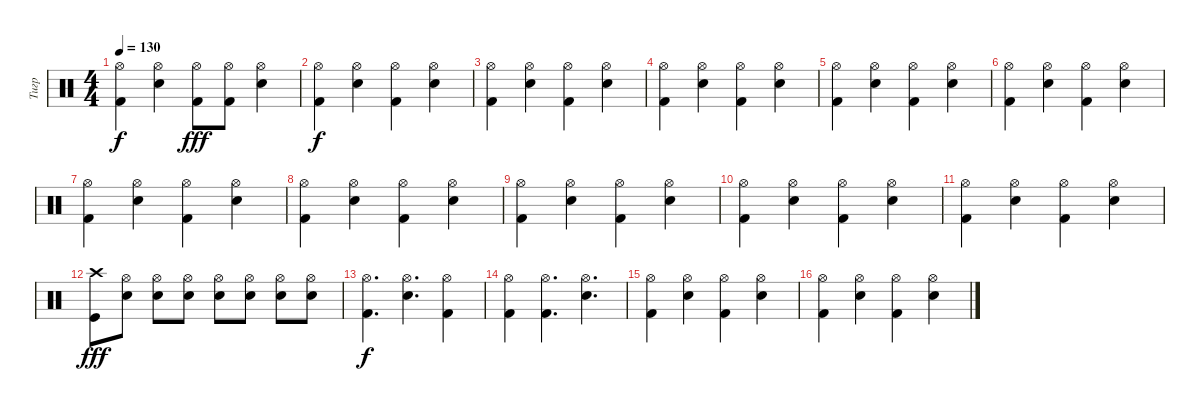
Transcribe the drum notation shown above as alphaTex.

\track ("Тигр" "Тигр") {instrument percussion}
\staff {score}
\articulation defaults
\ts (4 4)
\tempo 130
\clef neutral
\ks c
("Hi-Hat (open)" "Kick (hit) 2").4{dy f} ("Hi-Hat (open)" "Snare (hit) 2").4 ("Hi-Hat (open)" "Kick (hit) 2").8{dy fff} ("Hi-Hat (open)" "Kick (hit) 2").8 ("Hi-Hat (open)" "Snare (hit) 2").4 |
("Hi-Hat (open)" "Kick (hit) 2").4{dy f} ("Hi-Hat (open)" "Snare (hit) 2").4 ("Hi-Hat (open)" "Kick (hit) 2").4 ("Hi-Hat (open)" "Snare (hit) 2").4 |
("Hi-Hat (open)" "Kick (hit) 2").4 ("Hi-Hat (open)" "Snare (hit) 2").4 ("Hi-Hat (open)" "Kick (hit) 2").4 ("Hi-Hat (open)" "Snare (hit) 2").4 |
("Hi-Hat (open)" "Kick (hit) 2").4 ("Hi-Hat (open)" "Snare (hit) 2").4 ("Hi-Hat (open)" "Kick (hit) 2").4 ("Hi-Hat (open)" "Snare (hit) 2").4 |
("Hi-Hat (open)" "Kick (hit) 2").4 ("Hi-Hat (open)" "Snare (hit) 2").4 ("Hi-Hat (open)" "Kick (hit) 2").4 ("Hi-Hat (open)" "Snare (hit) 2").4 |
("Hi-Hat (open)" "Kick (hit) 2").4 ("Hi-Hat (open)" "Snare (hit) 2").4 ("Hi-Hat (open)" "Kick (hit) 2").4 ("Hi-Hat (open)" "Snare (hit) 2").4 |
("Hi-Hat (open)" "Kick (hit) 2").4 ("Hi-Hat (open)" "Snare (hit) 2").4 ("Hi-Hat (open)" "Kick (hit) 2").4 ("Hi-Hat (open)" "Snare (hit) 2").4 |
("Hi-Hat (open)" "Kick (hit) 2").4 ("Hi-Hat (open)" "Snare (hit) 2").4 ("Hi-Hat (open)" "Kick (hit) 2").4 ("Hi-Hat (open)" "Snare (hit) 2").4 |
("Hi-Hat (open)" "Kick (hit) 2").4 ("Hi-Hat (open)" "Snare (hit) 2").4 ("Hi-Hat (open)" "Kick (hit) 2").4 ("Hi-Hat (open)" "Snare (hit) 2").4 |
("Hi-Hat (open)" "Kick (hit) 2").4 ("Hi-Hat (open)" "Snare (hit) 2").4 ("Hi-Hat (open)" "Kick (hit) 2").4 ("Hi-Hat (open)" "Snare (hit) 2").4 |
("Hi-Hat (open)" "Kick (hit) 2").4 ("Hi-Hat (open)" "Snare (hit) 2").4 ("Hi-Hat (open)" "Kick (hit) 2").4 ("Hi-Hat (open)" "Snare (hit) 2").4 |
("Kick (hit)" "Crash high (hit)").8{dy fff} ("Snare (hit) 2" "Hi-Hat (open)").8 ("Snare (hit) 2" "Hi-Hat (open)").8 ("Snare (hit) 2" "Hi-Hat (open)").8 ("Snare (hit) 2" "Hi-Hat (open)").8 ("Snare (hit) 2" "Hi-Hat (open)").8 ("Snare (hit) 2" "Hi-Hat (open)").8 ("Snare (hit) 2" "Hi-Hat (open)").8 |
("Kick (hit) 2" "Hi-Hat (open)").4{d dy f} ("Snare (hit) 2" "Hi-Hat (open)").4{d} ("Kick (hit) 2" "Hi-Hat (open)").4 |
("Kick (hit) 2" "Hi-Hat (open)").4 ("Kick (hit) 2" "Hi-Hat (open)").4{d} ("Snare (hit) 2" "Hi-Hat (open)").4{d} |
("Hi-Hat (open)" "Kick (hit) 2").4 ("Hi-Hat (open)" "Snare (hit) 2").4 ("Hi-Hat (open)" "Kick (hit) 2").4 ("Hi-Hat (open)" "Snare (hit) 2").4 |
("Hi-Hat (open)" "Kick (hit) 2").4 ("Hi-Hat (open)" "Snare (hit) 2").4 ("Hi-Hat (open)" "Kick (hit) 2").4 ("Hi-Hat (open)" "Snare (hit) 2").4
